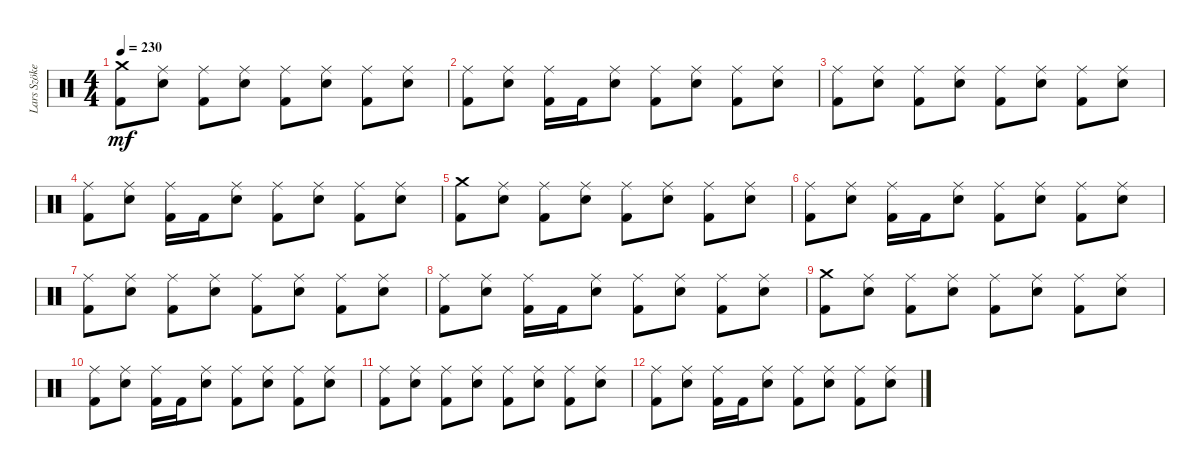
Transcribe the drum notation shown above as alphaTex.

\track ("Lars Szöke" "Lars Szöke") {instrument percussion}
\staff {score}
\articulation defaults
\ts (4 4)
\tempo 230
\clef neutral
\ks c
("Crash medium (hit)" "Kick (hit) 2").8{dy mf} ("Ride (middle)" "Snare (hit) 2").8 ("Ride (middle)" "Kick (hit) 2").8 ("Ride (middle)" "Snare (hit) 2").8 ("Ride (middle)" "Kick (hit) 2").8 ("Ride (middle)" "Snare (hit) 2").8 ("Ride (middle)" "Kick (hit) 2").8 ("Ride (middle)" "Snare (hit) 2").8 |
("Ride (middle)" "Kick (hit) 2").8 ("Ride (middle)" "Snare (hit) 2").8 ("Ride (middle)" "Kick (hit) 2").16 "Kick (hit) 2".16 ("Ride (middle)" "Snare (hit) 2").8 ("Ride (middle)" "Kick (hit) 2").8 ("Ride (middle)" "Snare (hit) 2").8 ("Ride (middle)" "Kick (hit) 2").8 ("Ride (middle)" "Snare (hit) 2").8 |
("Ride (middle)" "Kick (hit) 2").8 ("Ride (middle)" "Snare (hit) 2").8 ("Ride (middle)" "Kick (hit) 2").8 ("Ride (middle)" "Snare (hit) 2").8 ("Ride (middle)" "Kick (hit) 2").8 ("Ride (middle)" "Snare (hit) 2").8 ("Ride (middle)" "Kick (hit) 2").8 ("Ride (middle)" "Snare (hit) 2").8 |
("Ride (middle)" "Kick (hit) 2").8 ("Ride (middle)" "Snare (hit) 2").8 ("Ride (middle)" "Kick (hit) 2").16 "Kick (hit) 2".16 ("Ride (middle)" "Snare (hit) 2").8 ("Ride (middle)" "Kick (hit) 2").8 ("Ride (middle)" "Snare (hit) 2").8 ("Ride (middle)" "Kick (hit) 2").8 ("Ride (middle)" "Snare (hit) 2").8 |
("Crash medium (hit)" "Kick (hit) 2").8 ("Ride (middle)" "Snare (hit) 2").8 ("Ride (middle)" "Kick (hit) 2").8 ("Ride (middle)" "Snare (hit) 2").8 ("Ride (middle)" "Kick (hit) 2").8 ("Ride (middle)" "Snare (hit) 2").8 ("Ride (middle)" "Kick (hit) 2").8 ("Ride (middle)" "Snare (hit) 2").8 |
("Ride (middle)" "Kick (hit) 2").8 ("Ride (middle)" "Snare (hit) 2").8 ("Ride (middle)" "Kick (hit) 2").16 "Kick (hit) 2".16 ("Ride (middle)" "Snare (hit) 2").8 ("Ride (middle)" "Kick (hit) 2").8 ("Ride (middle)" "Snare (hit) 2").8 ("Ride (middle)" "Kick (hit) 2").8 ("Ride (middle)" "Snare (hit) 2").8 |
("Ride (middle)" "Kick (hit) 2").8 ("Ride (middle)" "Snare (hit) 2").8 ("Ride (middle)" "Kick (hit) 2").8 ("Ride (middle)" "Snare (hit) 2").8 ("Ride (middle)" "Kick (hit) 2").8 ("Ride (middle)" "Snare (hit) 2").8 ("Ride (middle)" "Kick (hit) 2").8 ("Ride (middle)" "Snare (hit) 2").8 |
("Ride (middle)" "Kick (hit) 2").8 ("Ride (middle)" "Snare (hit) 2").8 ("Ride (middle)" "Kick (hit) 2").16 "Kick (hit) 2".16 ("Ride (middle)" "Snare (hit) 2").8 ("Ride (middle)" "Kick (hit) 2").8 ("Ride (middle)" "Snare (hit) 2").8 ("Ride (middle)" "Kick (hit) 2").8 ("Ride (middle)" "Snare (hit) 2").8 |
("Crash medium (hit)" "Kick (hit) 2").8 ("Ride (middle)" "Snare (hit) 2").8 ("Ride (middle)" "Kick (hit) 2").8 ("Ride (middle)" "Snare (hit) 2").8 ("Ride (middle)" "Kick (hit) 2").8 ("Ride (middle)" "Snare (hit) 2").8 ("Ride (middle)" "Kick (hit) 2").8 ("Ride (middle)" "Snare (hit) 2").8 |
("Ride (middle)" "Kick (hit) 2").8 ("Ride (middle)" "Snare (hit) 2").8 ("Ride (middle)" "Kick (hit) 2").16 "Kick (hit) 2".16 ("Ride (middle)" "Snare (hit) 2").8 ("Ride (middle)" "Kick (hit) 2").8 ("Ride (middle)" "Snare (hit) 2").8 ("Ride (middle)" "Kick (hit) 2").8 ("Ride (middle)" "Snare (hit) 2").8 |
("Ride (middle)" "Kick (hit) 2").8 ("Ride (middle)" "Snare (hit) 2").8 ("Ride (middle)" "Kick (hit) 2").8 ("Ride (middle)" "Snare (hit) 2").8 ("Ride (middle)" "Kick (hit) 2").8 ("Ride (middle)" "Snare (hit) 2").8 ("Ride (middle)" "Kick (hit) 2").8 ("Ride (middle)" "Snare (hit) 2").8 |
("Ride (middle)" "Kick (hit) 2").8 ("Ride (middle)" "Snare (hit) 2").8 ("Ride (middle)" "Kick (hit) 2").16 "Kick (hit) 2".16 ("Ride (middle)" "Snare (hit) 2").8 ("Ride (middle)" "Kick (hit) 2").8 ("Ride (middle)" "Snare (hit) 2").8 ("Ride (middle)" "Kick (hit) 2").8 ("Ride (middle)" "Snare (hit) 2").8
